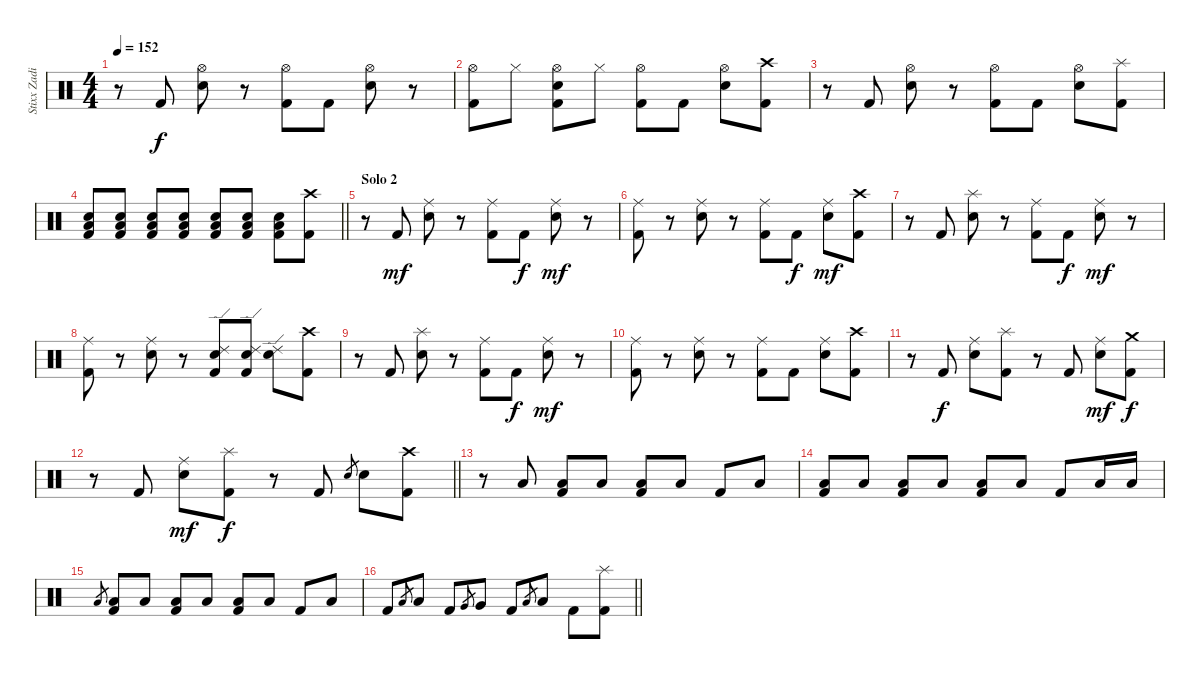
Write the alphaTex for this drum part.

\track ("Stixx Zadinia (Drums)" "Stixx Zadi") {instrument percussion}
\staff {score}
\articulation defaults
\ts (4 4)
\tempo 152
\clef neutral
\ks c
r.8{dy f} "Kick (hit) 2".8 ("Hi-Hat (open)" "Snare (hit) 2").8 r.8 ("Hi-Hat (open)" "Kick (hit) 2").8 "Kick (hit) 2".8 ("Hi-Hat (open)" "Snare (hit) 2").8 r.8 |
("Hi-Hat (open)" "Kick (hit) 2").8 "Hi-Hat (closed)".8 ("Hi-Hat (open)" "Snare (hit) 2" "Kick (hit) 2").8 "Hi-Hat (closed)".8 ("Hi-Hat (open)" "Kick (hit) 2").8 "Kick (hit) 2".8 ("Hi-Hat (open)" "Snare (hit) 2").8 ("Crash high (hit)" "Kick (hit) 2").8 |
r.8 "Kick (hit) 2".8 ("Hi-Hat (open)" "Snare (hit) 2").8 r.8 ("Hi-Hat (open)" "Kick (hit) 2").8 "Kick (hit) 2".8 ("Hi-Hat (open)" "Snare (hit) 2").8 ("Splash (hit)" "Kick (hit) 2").8 |
\barLineRight lightlight
("Low Floor Tom (hit)" "Snare (hit) 2" "Kick (hit) 2").8 ("Low Floor Tom (hit)" "Snare (hit) 2" "Kick (hit) 2").8 ("Low Floor Tom (hit)" "Snare (hit) 2" "Kick (hit) 2").8 ("Low Floor Tom (hit)" "Snare (hit) 2" "Kick (hit) 2").8 ("Low Floor Tom (hit)" "Snare (hit) 2" "Kick (hit) 2").8 ("Low Floor Tom (hit)" "Snare (hit) 2" "Kick (hit) 2").8 ("Low Floor Tom (hit)" "Snare (hit) 2" "Kick (hit) 2").8 ("Crash high (hit)" "Kick (hit) 2").8 |
\section ("" "Solo 2")
r.8 "Kick (hit) 2".8{dy mf} ("Ride (middle)" "Snare (hit) 2").8 r.8 ("Ride (middle)" "Kick (hit) 2").8 "Kick (hit) 2".8{dy f} ("Ride (middle)" "Snare (hit) 2").8{dy mf} r.8 |
("Ride (middle)" "Kick (hit) 2").8 r.8 ("Ride (middle)" "Snare (hit) 2").8 r.8 ("Ride (middle)" "Kick (hit) 2").8 "Kick (hit) 2".8{dy f} ("Ride (middle)" "Snare (hit) 2").8{dy mf} ("Crash high (hit)" "Kick (hit) 2").8 |
r.8 "Kick (hit) 2".8 ("Splash (hit)" "Snare (hit) 2").8 r.8 ("Ride (middle)" "Kick (hit) 2").8 "Kick (hit) 2".8{dy f} ("Ride (middle)" "Snare (hit) 2").8{dy mf} r.8 |
("Ride (middle)" "Kick (hit) 2").8 r.8 ("Ride (middle)" "Snare (hit) 2").8 r.8 ("Ride (edge) 2" "Snare (hit) 2" "Kick (hit) 2").8 ("Ride (edge) 2" "Snare (hit) 2" "Kick (hit) 2").8 ("Ride (edge) 2" "Snare (hit) 2").8 ("Crash high (hit)" "Kick (hit) 2").8 |
r.8 "Kick (hit) 2".8 ("Splash (hit)" "Snare (hit) 2").8 r.8 ("Ride (middle)" "Kick (hit) 2").8 "Kick (hit) 2".8{dy f} ("Ride (middle)" "Snare (hit) 2").8{dy mf} r.8 |
("Ride (middle)" "Kick (hit) 2").8 r.8 ("Ride (middle)" "Snare (hit) 2").8 r.8 ("Ride (middle)" "Kick (hit) 2").8 "Kick (hit) 2".8 ("Ride (middle)" "Snare (hit) 2").8 ("Crash high (hit)" "Kick (hit) 2").8 |
r.8 "Kick (hit) 2".8{dy f} ("Ride (middle)" "Snare (hit) 2").8 ("Splash (hit)" "Kick (hit) 2").8 r.8 "Kick (hit) 2".8 ("Ride (middle)" "Snare (hit) 2").8{dy mf} ("Crash medium (hit)" "Kick (hit) 2").8{dy f} |
\barLineRight lightlight
r.8 "Kick (hit) 2".8 ("Ride (middle)" "Snare (hit) 2").8{dy mf} ("Splash (hit)" "Kick (hit) 2").8{dy f} r.8 "Kick (hit) 2".8 "Snare (hit) 2".8{gr} "Snare (hit) 2".8 ("Crash high (hit)" "Kick (hit) 2").8 |
\section ("" "")
r.8 "Low Floor Tom (hit)".8 ("Low Floor Tom (hit)" "Kick (hit) 2").8 "Low Floor Tom (hit)".8 ("Low Floor Tom (hit)" "Kick (hit) 2").8 "Low Floor Tom (hit)".8 "Kick (hit) 2".8 "Low Floor Tom (hit)".8 |
("Low Floor Tom (hit)" "Kick (hit) 2").8 "Low Floor Tom (hit)".8 ("Low Floor Tom (hit)" "Kick (hit) 2").8 "Low Floor Tom (hit)".8 ("Low Floor Tom (hit)" "Kick (hit) 2").8 "Low Floor Tom (hit)".8 "Kick (hit) 2".8 "Low Floor Tom (hit)".16 "Low Floor Tom (hit)".16 |
"Low Floor Tom (hit)".8{gr} ("Low Floor Tom (hit)" "Kick (hit) 2").8 "Low Floor Tom (hit)".8 ("Low Floor Tom (hit)" "Kick (hit) 2").8 "Low Floor Tom (hit)".8 ("Low Floor Tom (hit)" "Kick (hit) 2").8 "Low Floor Tom (hit)".8 "Kick (hit) 2".8 "Low Floor Tom (hit)".8 |
\barLineRight lightlight "Kick (hit) 2".8 "Low Tom (hit)".8{gr} "Low Tom (hit)".8 "Kick (hit) 2".8 "Very Low Tom (hit)".8{gr} "Very Low Tom (hit)".8 "Kick (hit) 2".8 "Low Floor Tom (hit)".8{gr} "Low Floor Tom (hit)".8 "Kick (hit) 2".8
("Splash (hit)" "Kick (hit) 2").8
